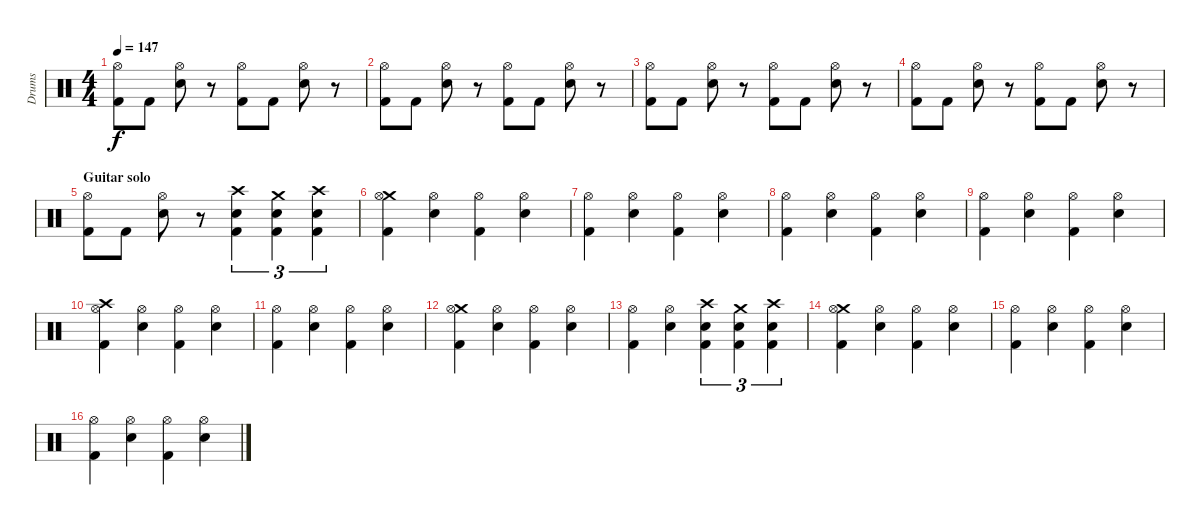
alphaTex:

\track ("Drums" "Drums") {instrument percussion}
\staff {score}
\articulation defaults
\ts (4 4)
\tempo 147
\clef neutral
\ks c
("Kick (hit) 2" "Hi-Hat (open)").8{dy f} "Kick (hit) 2".8 ("Electric Snare (hit)" "Hi-Hat (open)").8 r.8 ("Kick (hit) 2" "Hi-Hat (open)").8 "Kick (hit) 2".8 ("Electric Snare (hit)" "Hi-Hat (open)").8 r.8 |
("Kick (hit) 2" "Hi-Hat (open)").8 "Kick (hit) 2".8 ("Electric Snare (hit)" "Hi-Hat (open)").8 r.8 ("Kick (hit) 2" "Hi-Hat (open)").8 "Kick (hit) 2".8 ("Electric Snare (hit)" "Hi-Hat (open)").8 r.8 |
("Kick (hit) 2" "Hi-Hat (open)").8 "Kick (hit) 2".8 ("Electric Snare (hit)" "Hi-Hat (open)").8 r.8 ("Kick (hit) 2" "Hi-Hat (open)").8 "Kick (hit) 2".8 ("Electric Snare (hit)" "Hi-Hat (open)").8 r.8 |
("Kick (hit) 2" "Hi-Hat (open)").8 "Kick (hit) 2".8 ("Electric Snare (hit)" "Hi-Hat (open)").8 r.8 ("Kick (hit) 2" "Hi-Hat (open)").8 "Kick (hit) 2".8 ("Electric Snare (hit)" "Hi-Hat (open)").8 r.8 |
\section ("" "Guitar solo")
("Kick (hit) 2" "Hi-Hat (open)").8 "Kick (hit) 2".8 ("Electric Snare (hit)" "Hi-Hat (open)").8 r.8 ("Kick (hit) 2" "Electric Snare (hit)" "Crash high (hit)").4{tu (3 2)} ("Kick (hit) 2" "Electric Snare (hit)" "Crash medium (hit)").4{tu (3 2)} ("Kick (hit) 2" "Electric Snare (hit)" "Crash high (hit)").4{tu (3 2)} |
("Kick (hit) 2" "Crash medium (hit)" "Hi-Hat (open)").4 ("Electric Snare (hit)" "Hi-Hat (open)").4 ("Kick (hit) 2" "Hi-Hat (open)").4 ("Electric Snare (hit)" "Hi-Hat (open)").4 |
("Kick (hit) 2" "Hi-Hat (open)").4 ("Electric Snare (hit)" "Hi-Hat (open)").4 ("Kick (hit) 2" "Hi-Hat (open)").4 ("Electric Snare (hit)" "Hi-Hat (open)").4 |
("Kick (hit) 2" "Hi-Hat (open)").4 ("Electric Snare (hit)" "Hi-Hat (open)").4 ("Kick (hit) 2" "Hi-Hat (open)").4 ("Electric Snare (hit)" "Hi-Hat (open)").4 |
("Kick (hit) 2" "Hi-Hat (open)").4 ("Electric Snare (hit)" "Hi-Hat (open)").4 ("Kick (hit) 2" "Hi-Hat (open)").4 ("Electric Snare (hit)" "Hi-Hat (open)").4 |
("Kick (hit) 2" "Crash high (hit)" "Hi-Hat (open)").4 ("Electric Snare (hit)" "Hi-Hat (open)").4 ("Kick (hit) 2" "Hi-Hat (open)").4 ("Electric Snare (hit)" "Hi-Hat (open)").4 |
("Kick (hit) 2" "Hi-Hat (open)").4 ("Electric Snare (hit)" "Hi-Hat (open)").4 ("Kick (hit) 2" "Hi-Hat (open)").4 ("Electric Snare (hit)" "Hi-Hat (open)").4 |
("Kick (hit) 2" "Crash medium (hit)" "Hi-Hat (open)").4 ("Electric Snare (hit)" "Hi-Hat (open)").4 ("Kick (hit) 2" "Hi-Hat (open)").4 ("Electric Snare (hit)" "Hi-Hat (open)").4 |
("Kick (hit) 2" "Hi-Hat (open)").4 ("Electric Snare (hit)" "Hi-Hat (open)").4 ("Kick (hit) 2" "Electric Snare (hit)" "Crash high (hit)").4{tu (3 2)} ("Kick (hit) 2" "Electric Snare (hit)" "Crash medium (hit)").4{tu (3 2)} ("Kick (hit) 2" "Electric Snare (hit)" "Crash high (hit)").4{tu (3 2)} |
("Kick (hit) 2" "Crash medium (hit)" "Hi-Hat (open)").4 ("Electric Snare (hit)" "Hi-Hat (open)").4 ("Kick (hit) 2" "Hi-Hat (open)").4 ("Electric Snare (hit)" "Hi-Hat (open)").4 |
("Kick (hit) 2" "Hi-Hat (open)").4 ("Electric Snare (hit)" "Hi-Hat (open)").4 ("Kick (hit) 2" "Hi-Hat (open)").4 ("Electric Snare (hit)" "Hi-Hat (open)").4 |
("Kick (hit) 2" "Hi-Hat (open)").4 ("Electric Snare (hit)" "Hi-Hat (open)").4 ("Kick (hit) 2" "Hi-Hat (open)").4 ("Electric Snare (hit)" "Hi-Hat (open)").4
